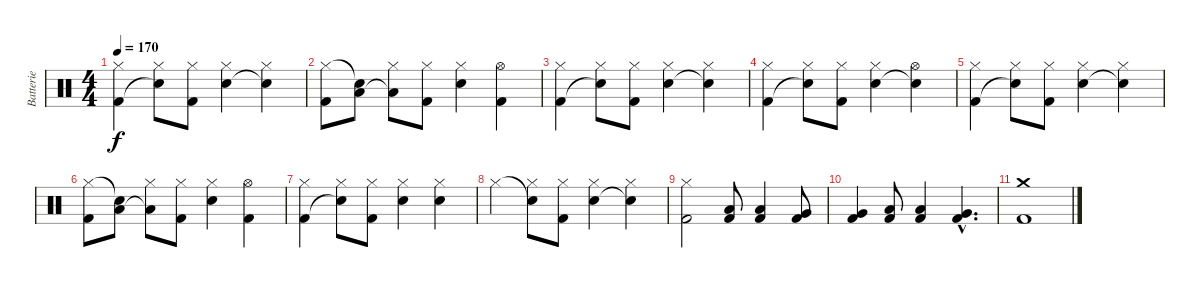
\track ("Batterie" "Batterie") {instrument percussion}
\staff {score}
\articulation defaults
\ts (4 4)
\tempo 170
\clef neutral
\ks c
("Kick (hit) 2" "Hi-Hat (closed)").4{dy f} ("Snare (hit)"{t} "Hi-Hat (closed)").8 ("Kick (hit) 2" "Hi-Hat (closed)").8 ("Snare (hit) 2" "Hi-Hat (closed)").4 ("Snare (hit)"{t} "Hi-Hat (closed)").4 |
("Kick (hit) 2" "Hi-Hat (closed)").8 ("Low Tom (hit)" "Snare (hit)"{t}).8 ("Low Tom (hit)"{t} "Hi-Hat (closed)").8 ("Kick (hit) 2" "Hi-Hat (closed)").8 ("Snare (hit) 2" "Hi-Hat (closed)").4 ("Kick (hit) 2" "Hi-Hat (open)").4 |
("Kick (hit) 2" "Hi-Hat (closed)").4 ("Snare (hit)"{t} "Hi-Hat (closed)").8 ("Kick (hit) 2" "Hi-Hat (closed)").8 ("Snare (hit) 2" "Hi-Hat (closed)").4 ("Snare (hit)"{t} "Hi-Hat (closed)").4 |
("Kick (hit) 2" "Hi-Hat (closed)").4 ("Snare (hit)"{t} "Hi-Hat (closed)").8 ("Kick (hit) 2" "Hi-Hat (closed)").8 ("Snare (hit) 2" "Hi-Hat (closed)").4 ("Snare (hit)"{t} "Hi-Hat (open)").4 |
("Kick (hit) 2" "Hi-Hat (closed)").4 ("Snare (hit)"{t} "Hi-Hat (closed)").8 ("Kick (hit) 2" "Hi-Hat (closed)").8 ("Snare (hit) 2" "Hi-Hat (closed)").4 ("Snare (hit)"{t} "Hi-Hat (closed)").4 |
("Kick (hit) 2" "Hi-Hat (closed)").8 ("Low Tom (hit)" "Snare (hit)"{t}).8 ("Low Tom (hit)"{t} "Hi-Hat (closed)").8 ("Kick (hit) 2" "Hi-Hat (closed)").8 ("Snare (hit) 2" "Hi-Hat (closed)").4 ("Kick (hit) 2" "Hi-Hat (open)").4 |
("Kick (hit) 2" "Hi-Hat (closed)").4 ("Snare (hit)"{t} "Hi-Hat (closed)").8 ("Kick (hit) 2" "Hi-Hat (closed)").8 ("Snare (hit) 2" "Hi-Hat (closed)").4 ("Snare (hit) 2" "Hi-Hat (closed)").4 |
"Hi-Hat (closed)".4 ("Snare (hit)"{t} "Hi-Hat (closed)").8 ("Kick (hit) 2" "Hi-Hat (closed)").8 ("Snare (hit) 2" "Hi-Hat (closed)").4 ("Snare (hit)"{t} "Hi-Hat (closed)").4 |
("Kick (hit) 2" "Hi-Hat (closed)").2 ("Kick (hit) 2" "Low Tom (hit)").8 ("Kick (hit) 2" "Low Tom (hit)").4 ("Kick (hit) 2" "Very Low Tom (hit)").8 |
("Kick (hit) 2" "Very Low Tom (hit)").4 ("Kick (hit) 2" "Low Tom (hit)").8 ("Kick (hit) 2" "Low Tom (hit)").4 ("Kick (hit) 2"{hac} "Very Low Tom (hit)"{hac}).4{d} |
("Kick (hit) 2" "Crash medium (hit)").1
